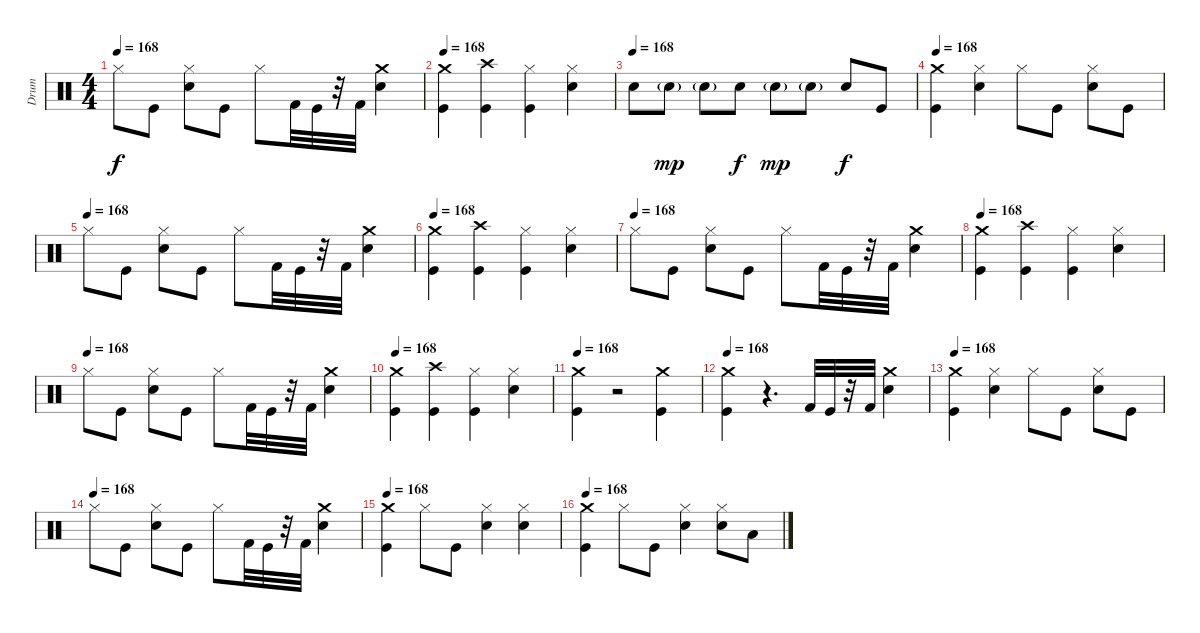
\track ("Drum" "Drum") {instrument percussion}
\staff {score}
\articulation defaults
\ts (4 4)
\tempo 168
\clef neutral
\ks c "Hi-Hat (closed)".8{dy f} "Kick (hit)".8
("Hi-Hat (closed)" "Snare (hit) 2").8 "Kick (hit)".8 "Hi-Hat (closed)".8 "Kick (hit) 2".32 "Kick (hit)".32 r.32 "Kick (hit) 2".32 ("Crash medium (hit)" "Snare (hit) 2").4 |
\tempo 168
("Crash medium (hit)" "Kick (hit)").4 ("Crash high (hit)" "Kick (hit)").4 ("Hi-Hat (closed)" "Kick (hit)").4 ("Hi-Hat (closed)" "Snare (hit) 2").4 |
\tempo (168)
"Snare (hit) 2".8 "Snare (hit) 2"{g}.8{dy mp} "Snare (hit) 2"{g}.8 "Snare (hit) 2".8{dy f} "Snare (hit) 2"{g}.8{dy mp} "Snare (hit) 2"{g}.8 "Snare (hit) 2".8{dy f} "Kick (hit)".8 |
\tempo 168
("Crash medium (hit)" "Kick (hit)").4 ("Hi-Hat (closed)" "Snare (hit) 2").4 "Hi-Hat (closed)".8 "Kick (hit)".8 ("Hi-Hat (closed)" "Snare (hit) 2").8 "Kick (hit)".8 |
\tempo (168)
"Hi-Hat (closed)".8 "Kick (hit)".8 ("Hi-Hat (closed)" "Snare (hit) 2").8 "Kick (hit)".8 "Hi-Hat (closed)".8 "Kick (hit) 2".32 "Kick (hit)".32 r.32 "Kick (hit) 2".32 ("Crash medium (hit)" "Snare (hit) 2").4 |
\tempo 168
("Crash medium (hit)" "Kick (hit)").4 ("Crash high (hit)" "Kick (hit)").4 ("Hi-Hat (closed)" "Kick (hit)").4 ("Hi-Hat (closed)" "Snare (hit) 2").4 |
\tempo (168)
"Hi-Hat (closed)".8 "Kick (hit)".8 ("Hi-Hat (closed)" "Snare (hit) 2").8 "Kick (hit)".8 "Hi-Hat (closed)".8 "Kick (hit) 2".32 "Kick (hit)".32 r.32 "Kick (hit) 2".32 ("Crash medium (hit)" "Snare (hit) 2").4 |
\tempo 168
("Crash medium (hit)" "Kick (hit)").4 ("Crash high (hit)" "Kick (hit)").4 ("Hi-Hat (closed)" "Kick (hit)").4 ("Hi-Hat (closed)" "Snare (hit) 2").4 |
\tempo (168)
"Hi-Hat (closed)".8 "Kick (hit)".8 ("Hi-Hat (closed)" "Snare (hit) 2").8 "Kick (hit)".8 "Hi-Hat (closed)".8 "Kick (hit) 2".32 "Kick (hit)".32 r.32 "Kick (hit) 2".32 ("Crash medium (hit)" "Snare (hit) 2").4 |
\tempo 168
("Crash medium (hit)" "Kick (hit)").4 ("Crash high (hit)" "Kick (hit)").4 ("Hi-Hat (closed)" "Kick (hit)").4 ("Hi-Hat (closed)" "Snare (hit) 2").4 |
\tempo 168
("Crash medium (hit)" "Kick (hit)").4 r.2 ("Crash medium (hit)" "Kick (hit)").4 |
\tempo 168
("Crash medium (hit)" "Kick (hit)").4 r.4{d} "Kick (hit) 2".32 "Kick (hit)".32 r.32 "Kick (hit) 2".32 ("Crash medium (hit)" "Snare (hit) 2").4 |
\tempo 168
("Crash medium (hit)" "Kick (hit)").4 ("Hi-Hat (closed)" "Snare (hit) 2").4 "Hi-Hat (closed)".8 "Kick (hit)".8 ("Hi-Hat (closed)" "Snare (hit) 2").8 "Kick (hit)".8 |
\tempo (168)
"Hi-Hat (closed)".8 "Kick (hit)".8 ("Hi-Hat (closed)" "Snare (hit) 2").8 "Kick (hit)".8 "Hi-Hat (closed)".8 "Kick (hit) 2".32 "Kick (hit)".32 r.32 "Kick (hit) 2".32 ("Crash medium (hit)" "Snare (hit) 2").4 |
\tempo 168
("Crash medium (hit)" "Kick (hit)").4 "Hi-Hat (closed)".8 "Kick (hit)".8 ("Hi-Hat (closed)" "Snare (hit) 2").4 ("Hi-Hat (closed)" "Snare (hit) 2").4 |
\tempo 168
("Crash medium (hit)" "Kick (hit)").4 "Hi-Hat (closed)".8 "Kick (hit)".8 ("Hi-Hat (closed)" "Snare (hit) 2").4 ("Hi-Hat (closed)" "Snare (hit) 2").8 "Low Tom (hit)".8
